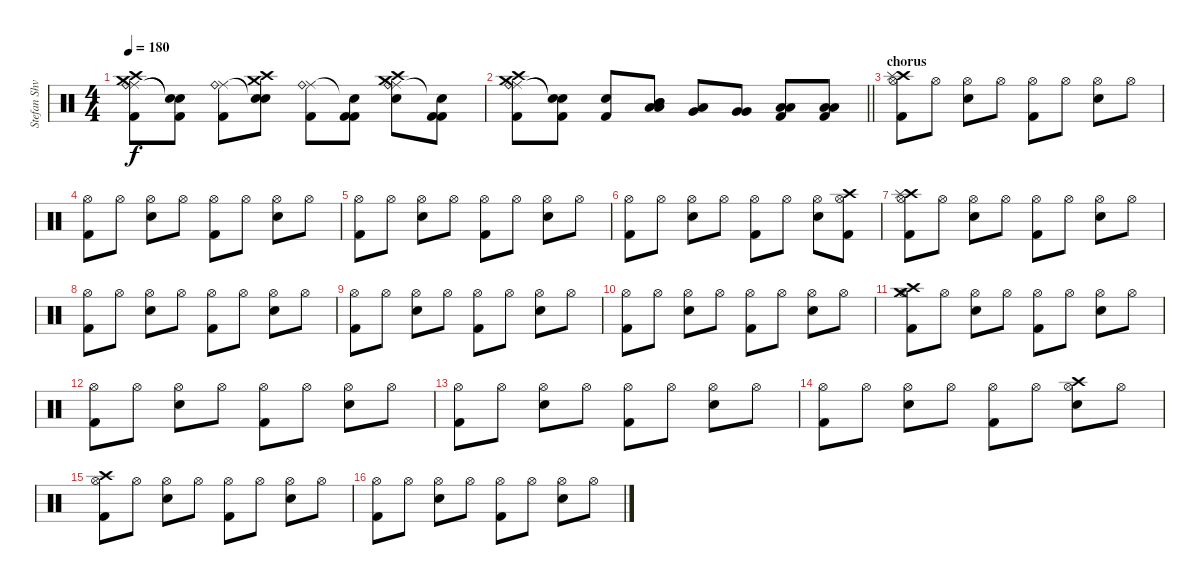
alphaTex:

\track ("Stefan Shvartsman" "Stefan Shv") {instrument percussion}
\staff {score}
\articulation defaults
\ts (4 4)
\tempo 180
\clef neutral
\ks c
("Ride (middle)" "Ride (bell)" "Crash medium (hit)" "Kick (hit) 2" "Crash high (hit)").8{dy f} ("Snare (hit)"{t} "Snare (hit)"{t} "Kick (hit) 2").8 ("Ride (middle)" "Ride (bell)" "Kick (hit) 2").8 ("Snare (hit)"{t} "Crash medium (hit)" "Crash high (hit)" "Snare (hit) 2").8 ("Ride (middle)" "Ride (bell)" "Kick (hit) 2").8 ("Snare (hit)"{t} "Kick (hit) 2" "Kick (hit) 2").8 ("Ride (middle)" "Ride (bell)" "Snare (hit) 2" "Crash medium (hit)" "Crash high (hit)").8 ("Snare (hit)"{t} "Kick (hit) 2" "Kick (hit) 2").8 |
\barLineRight lightlight
("Ride (middle)" "Ride (bell)" "Crash medium (hit)" "Kick (hit) 2" "Crash high (hit)").8 ("Snare (hit)"{t} "Snare (hit)"{t} "Kick (hit) 2").8 ("Snare (hit) 2" "Kick (hit) 2").8 ("Mid Tom (hit)" "Low Tom (hit)" "Low Tom (hit)" "Mid Tom (hit)").8 ("Low Tom (hit)" "Very Low Tom (hit)").8 ("Very Low Tom (hit)" "Very Low Tom (hit)").8 ("Low Floor Tom (hit)" "Low Floor Tom (hit)" "Kick (hit) 2").8 ("Low Floor Tom (hit)" "Low Floor Tom (hit)" "Kick (hit) 2").8 |
\section ("" "chorus")
("Hi-Hat (open)" "Kick (hit) 2" "Crash high (hit)" "Splash (hit)").8 "Hi-Hat (open)".8 ("Hi-Hat (open)" "Snare (hit) 2").8 "Hi-Hat (open)".8 ("Hi-Hat (open)" "Kick (hit) 2").8 "Hi-Hat (open)".8 ("Hi-Hat (open)" "Snare (hit) 2").8 "Hi-Hat (open)".8 |
("Hi-Hat (open)" "Kick (hit) 2").8 "Hi-Hat (open)".8 ("Hi-Hat (open)" "Snare (hit) 2").8 "Hi-Hat (open)".8 ("Hi-Hat (open)" "Kick (hit) 2").8 "Hi-Hat (open)".8 ("Hi-Hat (open)" "Snare (hit) 2").8 "Hi-Hat (open)".8 |
("Hi-Hat (open)" "Kick (hit) 2").8 "Hi-Hat (open)".8 ("Hi-Hat (open)" "Snare (hit) 2").8 "Hi-Hat (open)".8 ("Hi-Hat (open)" "Kick (hit) 2").8 "Hi-Hat (open)".8 ("Hi-Hat (open)" "Snare (hit) 2").8 "Hi-Hat (open)".8 |
("Hi-Hat (open)" "Kick (hit) 2").8 "Hi-Hat (open)".8 ("Hi-Hat (open)" "Snare (hit) 2").8 "Hi-Hat (open)".8 ("Hi-Hat (open)" "Kick (hit) 2").8 "Hi-Hat (open)".8 ("Hi-Hat (open)" "Snare (hit) 2").8 ("Hi-Hat (open)" "Crash high (hit)" "Kick (hit) 2").8 |
("Hi-Hat (open)" "Kick (hit) 2" "Crash high (hit)" "Splash (hit)").8 "Hi-Hat (open)".8 ("Hi-Hat (open)" "Snare (hit) 2").8 "Hi-Hat (open)".8 ("Hi-Hat (open)" "Kick (hit) 2").8 "Hi-Hat (open)".8 ("Hi-Hat (open)" "Snare (hit) 2").8 "Hi-Hat (open)".8 |
("Hi-Hat (open)" "Kick (hit) 2").8 "Hi-Hat (open)".8 ("Hi-Hat (open)" "Snare (hit) 2").8 "Hi-Hat (open)".8 ("Hi-Hat (open)" "Kick (hit) 2").8 "Hi-Hat (open)".8 ("Hi-Hat (open)" "Snare (hit) 2").8 "Hi-Hat (open)".8 |
("Hi-Hat (open)" "Kick (hit) 2").8 "Hi-Hat (open)".8 ("Hi-Hat (open)" "Snare (hit) 2").8 "Hi-Hat (open)".8 ("Hi-Hat (open)" "Kick (hit) 2").8 "Hi-Hat (open)".8 ("Hi-Hat (open)" "Snare (hit) 2").8 "Hi-Hat (open)".8 |
("Hi-Hat (open)" "Kick (hit) 2").8 "Hi-Hat (open)".8 ("Hi-Hat (open)" "Snare (hit) 2").8 "Hi-Hat (open)".8 ("Hi-Hat (open)" "Kick (hit) 2").8 "Hi-Hat (open)".8 ("Hi-Hat (open)" "Snare (hit) 2").8 "Hi-Hat (open)".8 |
("Crash high (hit)" "Hi-Hat (open)" "Kick (hit) 2" "Crash medium (hit)").8 "Hi-Hat (open)".8 ("Hi-Hat (open)" "Snare (hit) 2").8 "Hi-Hat (open)".8 ("Hi-Hat (open)" "Kick (hit) 2").8 "Hi-Hat (open)".8 ("Hi-Hat (open)" "Snare (hit) 2").8 "Hi-Hat (open)".8 |
("Hi-Hat (open)" "Kick (hit) 2").8 "Hi-Hat (open)".8 ("Hi-Hat (open)" "Snare (hit) 2").8 "Hi-Hat (open)".8 ("Hi-Hat (open)" "Kick (hit) 2").8 "Hi-Hat (open)".8 ("Hi-Hat (open)" "Snare (hit) 2").8 "Hi-Hat (open)".8 |
("Hi-Hat (open)" "Kick (hit) 2").8 "Hi-Hat (open)".8 ("Hi-Hat (open)" "Snare (hit) 2").8 "Hi-Hat (open)".8 ("Hi-Hat (open)" "Kick (hit) 2").8 "Hi-Hat (open)".8 ("Hi-Hat (open)" "Snare (hit) 2").8 "Hi-Hat (open)".8 |
("Hi-Hat (open)" "Kick (hit) 2").8 "Hi-Hat (open)".8 ("Hi-Hat (open)" "Snare (hit) 2").8 "Hi-Hat (open)".8 ("Hi-Hat (open)" "Kick (hit) 2").8 "Hi-Hat (open)".8 ("Hi-Hat (open)" "Snare (hit) 2" "Crash high (hit)").8 "Hi-Hat (open)".8 |
("Crash high (hit)" "Hi-Hat (open)" "Kick (hit) 2").8 "Hi-Hat (open)".8 ("Hi-Hat (open)" "Snare (hit) 2").8 "Hi-Hat (open)".8 ("Hi-Hat (open)" "Kick (hit) 2").8 "Hi-Hat (open)".8 ("Hi-Hat (open)" "Snare (hit) 2").8 "Hi-Hat (open)".8 |
("Hi-Hat (open)" "Kick (hit) 2").8 "Hi-Hat (open)".8 ("Hi-Hat (open)" "Snare (hit) 2").8 "Hi-Hat (open)".8 ("Hi-Hat (open)" "Kick (hit) 2").8 "Hi-Hat (open)".8 ("Hi-Hat (open)" "Snare (hit) 2").8 "Hi-Hat (open)".8
